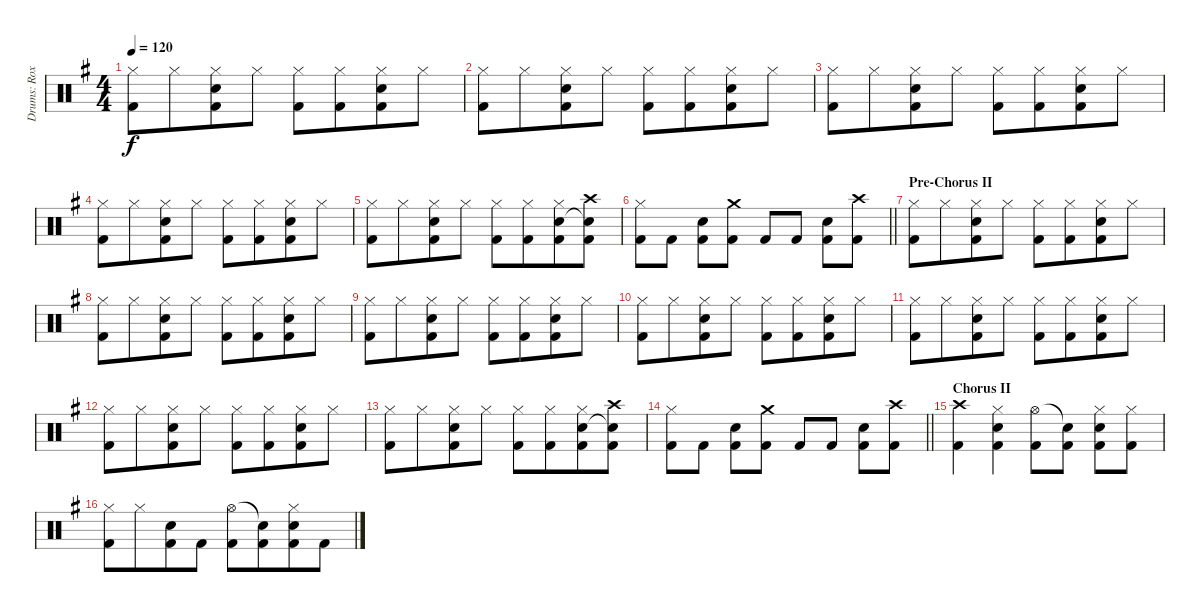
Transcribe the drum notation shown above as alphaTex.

\track ("Drums: Roxy" "Drums: Rox") {instrument percussion}
\staff {score}
\articulation defaults
\ts (4 4)
\tempo 120
\clef neutral
\ks g
("Hi-Hat (closed)" "Kick (hit) 2").8{dy f} "Hi-Hat (closed)".8{beam merge} ("Hi-Hat (closed)" "Snare (hit) 2" "Kick (hit) 2").8 "Hi-Hat (closed)".8 ("Hi-Hat (closed)" "Kick (hit) 2").8 ("Hi-Hat (closed)" "Kick (hit) 2").8{beam merge} ("Hi-Hat (closed)" "Snare (hit) 2" "Kick (hit) 2").8 "Hi-Hat (closed)".8 |
("Hi-Hat (closed)" "Kick (hit) 2").8 "Hi-Hat (closed)".8{beam merge} ("Hi-Hat (closed)" "Snare (hit) 2" "Kick (hit) 2").8 "Hi-Hat (closed)".8 ("Hi-Hat (closed)" "Kick (hit) 2").8 ("Hi-Hat (closed)" "Kick (hit) 2").8{beam merge} ("Hi-Hat (closed)" "Snare (hit) 2" "Kick (hit) 2").8 "Hi-Hat (closed)".8 |
("Hi-Hat (closed)" "Kick (hit) 2").8 "Hi-Hat (closed)".8{beam merge} ("Hi-Hat (closed)" "Snare (hit) 2" "Kick (hit) 2").8 "Hi-Hat (closed)".8 ("Hi-Hat (closed)" "Kick (hit) 2").8 ("Hi-Hat (closed)" "Kick (hit) 2").8{beam merge} ("Hi-Hat (closed)" "Snare (hit) 2" "Kick (hit) 2").8 "Hi-Hat (closed)".8 |
("Hi-Hat (closed)" "Kick (hit) 2").8 "Hi-Hat (closed)".8{beam merge} ("Hi-Hat (closed)" "Snare (hit) 2" "Kick (hit) 2").8 "Hi-Hat (closed)".8 ("Hi-Hat (closed)" "Kick (hit) 2").8 ("Hi-Hat (closed)" "Kick (hit) 2").8{beam merge} ("Hi-Hat (closed)" "Snare (hit) 2" "Kick (hit) 2").8 "Hi-Hat (closed)".8 |
("Hi-Hat (closed)" "Kick (hit) 2").8 "Hi-Hat (closed)".8{beam merge} ("Hi-Hat (closed)" "Snare (hit) 2" "Kick (hit) 2").8 "Hi-Hat (closed)".8 ("Hi-Hat (closed)" "Kick (hit) 2").8 ("Hi-Hat (closed)" "Kick (hit) 2").8{beam merge} ("Hi-Hat (closed)" "Snare (hit) 2" "Kick (hit) 2").8 ("Crash high (hit)" "Snare (hit)"{t} "Kick (hit) 2").8 |
\barLineRight lightlight
("Hi-Hat (closed)" "Kick (hit) 2").8 "Kick (hit) 2".8 ("Snare (hit) 2" "Kick (hit) 2").8 ("Crash medium (hit)" "Kick (hit) 2").8 "Kick (hit) 2".8 "Kick (hit) 2".8 ("Snare (hit) 2" "Kick (hit) 2").8 ("Crash high (hit)" "Kick (hit) 2").8 |
\section ("" "Pre-Chorus II")
("Hi-Hat (closed)" "Kick (hit) 2").8 "Hi-Hat (closed)".8{beam merge} ("Hi-Hat (closed)" "Snare (hit) 2" "Kick (hit) 2").8 "Hi-Hat (closed)".8 ("Hi-Hat (closed)" "Kick (hit) 2").8 ("Hi-Hat (closed)" "Kick (hit) 2").8{beam merge} ("Hi-Hat (closed)" "Snare (hit) 2" "Kick (hit) 2").8 "Hi-Hat (closed)".8 |
("Hi-Hat (closed)" "Kick (hit) 2").8 "Hi-Hat (closed)".8{beam merge} ("Hi-Hat (closed)" "Snare (hit) 2" "Kick (hit) 2").8 "Hi-Hat (closed)".8 ("Hi-Hat (closed)" "Kick (hit) 2").8 ("Hi-Hat (closed)" "Kick (hit) 2").8{beam merge} ("Hi-Hat (closed)" "Snare (hit) 2" "Kick (hit) 2").8 "Hi-Hat (closed)".8 |
("Hi-Hat (closed)" "Kick (hit) 2").8 "Hi-Hat (closed)".8{beam merge} ("Hi-Hat (closed)" "Snare (hit) 2" "Kick (hit) 2").8 "Hi-Hat (closed)".8 ("Hi-Hat (closed)" "Kick (hit) 2").8 ("Hi-Hat (closed)" "Kick (hit) 2").8{beam merge} ("Hi-Hat (closed)" "Snare (hit) 2" "Kick (hit) 2").8 "Hi-Hat (closed)".8 |
("Hi-Hat (closed)" "Kick (hit) 2").8 "Hi-Hat (closed)".8{beam merge} ("Hi-Hat (closed)" "Snare (hit) 2" "Kick (hit) 2").8 "Hi-Hat (closed)".8 ("Hi-Hat (closed)" "Kick (hit) 2").8 ("Hi-Hat (closed)" "Kick (hit) 2").8{beam merge} ("Hi-Hat (closed)" "Snare (hit) 2" "Kick (hit) 2").8 "Hi-Hat (closed)".8 |
("Hi-Hat (closed)" "Kick (hit) 2").8 "Hi-Hat (closed)".8{beam merge} ("Hi-Hat (closed)" "Snare (hit) 2" "Kick (hit) 2").8 "Hi-Hat (closed)".8 ("Hi-Hat (closed)" "Kick (hit) 2").8 ("Hi-Hat (closed)" "Kick (hit) 2").8{beam merge} ("Hi-Hat (closed)" "Snare (hit) 2" "Kick (hit) 2").8 "Hi-Hat (closed)".8 |
("Hi-Hat (closed)" "Kick (hit) 2").8 "Hi-Hat (closed)".8{beam merge} ("Hi-Hat (closed)" "Snare (hit) 2" "Kick (hit) 2").8 "Hi-Hat (closed)".8 ("Hi-Hat (closed)" "Kick (hit) 2").8 ("Hi-Hat (closed)" "Kick (hit) 2").8{beam merge} ("Hi-Hat (closed)" "Snare (hit) 2" "Kick (hit) 2").8 "Hi-Hat (closed)".8 |
("Hi-Hat (closed)" "Kick (hit) 2").8 "Hi-Hat (closed)".8{beam merge} ("Hi-Hat (closed)" "Snare (hit) 2" "Kick (hit) 2").8 "Hi-Hat (closed)".8 ("Hi-Hat (closed)" "Kick (hit) 2").8 ("Hi-Hat (closed)" "Kick (hit) 2").8{beam merge} ("Hi-Hat (closed)" "Snare (hit) 2" "Kick (hit) 2").8 ("Crash high (hit)" "Snare (hit)"{t} "Kick (hit) 2").8 |
\barLineRight lightlight
("Hi-Hat (closed)" "Kick (hit) 2").8 "Kick (hit) 2".8 ("Snare (hit) 2" "Kick (hit) 2").8 ("Crash medium (hit)" "Kick (hit) 2").8 "Kick (hit) 2".8 "Kick (hit) 2".8 ("Snare (hit) 2" "Kick (hit) 2").8 ("Crash high (hit)" "Kick (hit) 2").8 |
\section ("" "Chorus II")
("Crash high (hit)" "Kick (hit) 2").4 ("Hi-Hat (closed)" "Snare (hit) 2" "Kick (hit) 2").4 ("Hi-Hat (open)" "Kick (hit) 2").8 ("Snare (hit)"{t} "Kick (hit) 2").8 ("Hi-Hat (closed)" "Snare (hit) 2" "Kick (hit) 2").8 ("Hi-Hat (closed)" "Kick (hit) 2").8 |
("Hi-Hat (closed)" "Kick (hit) 2").8 "Hi-Hat (closed)".8{beam merge} ("Snare (hit) 2" "Kick (hit) 2").8 "Kick (hit) 2".8 ("Hi-Hat (open)" "Kick (hit) 2").8 ("Snare (hit)"{t} "Kick (hit) 2").8{beam merge} ("Hi-Hat (closed)" "Snare (hit) 2" "Kick (hit) 2").8 "Kick (hit) 2".8
